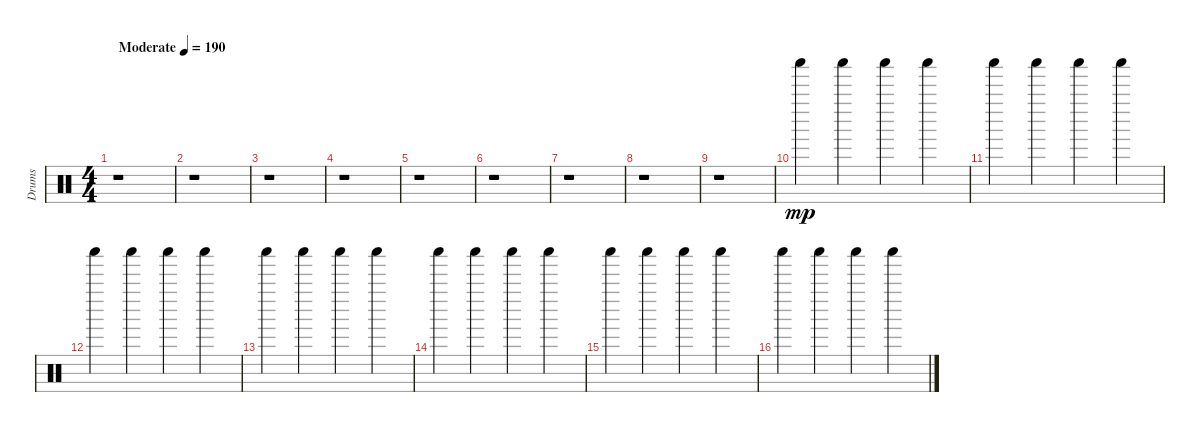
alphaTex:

\track ("Drums" "Drums") {instrument percussion}
\staff {score}
\articulation defaults
\ts (4 4)
\tempo (190 "Moderate")
\clef neutral
\ks c
r.1{dy mp} |
r.1 |
r.1 |
r.1 |
r.1 |
r.1 |
r.1 |
r.1 |
r.1 |
"Shaker (hit)".4 "Shaker (hit)".4 "Shaker (hit)".4 "Shaker (hit)".4 |
"Shaker (hit)".4 "Shaker (hit)".4 "Shaker (hit)".4 "Shaker (hit)".4 |
"Shaker (hit)".4 "Shaker (hit)".4 "Shaker (hit)".4 "Shaker (hit)".4 |
"Shaker (hit)".4 "Shaker (hit)".4 "Shaker (hit)".4 "Shaker (hit)".4 |
"Shaker (hit)".4 "Shaker (hit)".4 "Shaker (hit)".4 "Shaker (hit)".4 |
"Shaker (hit)".4 "Shaker (hit)".4 "Shaker (hit)".4 "Shaker (hit)".4 |
"Shaker (hit)".4 "Shaker (hit)".4 "Shaker (hit)".4 "Shaker (hit)".4
